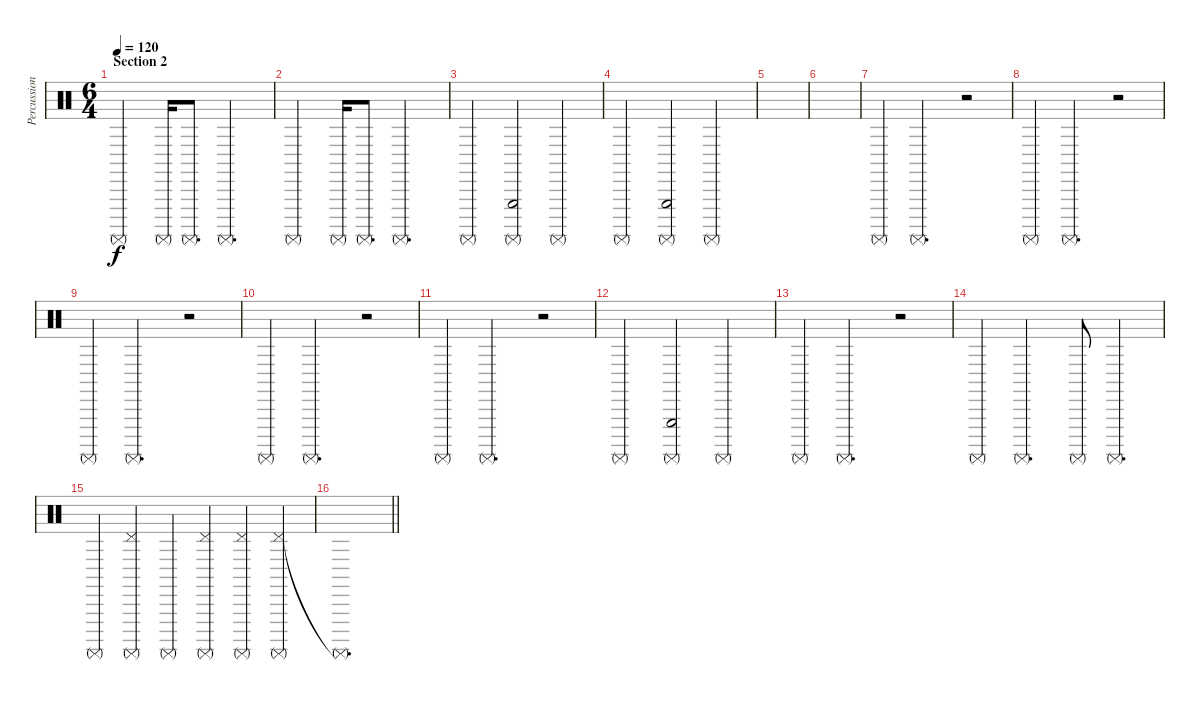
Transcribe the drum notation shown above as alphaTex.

\track ("Percussion" "Percussion") {instrument percussion}
\staff {score}
\articulation defaults
\ts (6 4)
\section ("" "Section 2")
\tempo 120
\clef neutral
\ks c "Surdo (mute)".2{dy f} "Surdo (mute)".16 "Surdo (mute)".8{d} "Surdo (mute)".2{d}
|
"Surdo (mute)".2 "Surdo (mute)".16 "Surdo (mute)".8{d} "Surdo (mute)".2{d} |
"Surdo (mute)".2 ("Triangle (hit)" "Surdo (mute)").2 "Surdo (mute)".2 |
"Surdo (mute)".2 ("Triangle (hit)" "Surdo (mute)").2 "Surdo (mute)".2 |
|
|
"Surdo (mute)".4 "Surdo (mute)".2{d} r.2 |
"Surdo (mute)".4 "Surdo (mute)".2{d} r.2 |
"Surdo (mute)".4 "Surdo (mute)".2{d} r.2 |
"Surdo (mute)".4 "Surdo (mute)".2{d} r.2 |
"Surdo (mute)".4 "Surdo (mute)".2{d} r.2 |
"Surdo (mute)".2 ("Triangle (hit)" "Surdo (mute)").2 "Surdo (mute)".2 |
"Surdo (mute)".4 "Surdo (mute)".2{d} r.2 |
"Surdo (mute)".4 "Surdo (mute)".2{d} "Surdo (mute)".8 "Surdo (mute)".4{d} |
"Surdo (mute)".4 ("Pedal Hi-Hat (hit)" "Surdo (mute)").4 "Surdo (mute)".4 ("Pedal Hi-Hat (hit)" "Surdo (mute)").4 ("Pedal Hi-Hat (hit)" "Surdo (mute)").4 ("Pedal Hi-Hat (hit)" "Surdo (mute)").4 |
\barLineRight lightlight "Surdo (mute)"{t}.1{d}
